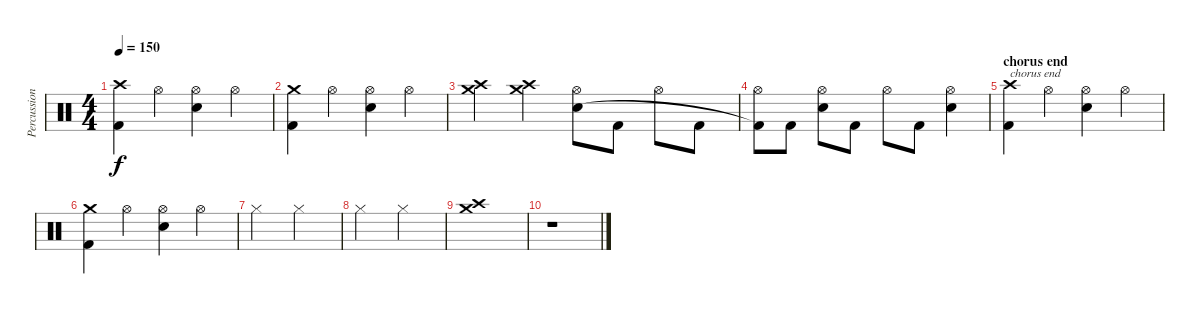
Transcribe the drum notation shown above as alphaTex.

\track ("Percussion" "Percussion") {instrument percussion}
\staff {score}
\articulation defaults
\ts (4 4)
\tempo 150
\clef neutral
\ks c
("Crash high (hit)" "Kick (hit) 2").4{dy f} "Hi-Hat (open)".4 ("Hi-Hat (open)" "Snare (hit) 2").4 "Hi-Hat (open)".4 |
("Crash medium (hit)" "Kick (hit) 2").4 "Hi-Hat (open)".4 ("Hi-Hat (open)" "Snare (hit) 2").4 "Hi-Hat (open)".4 |
("Crash medium (hit)" "Crash high (hit)").4 ("Crash medium (hit)" "Crash high (hit)").4 ("Hi-Hat (open)" "Snare (hit) 2").8 "Kick (hit) 2".8 "Hi-Hat (open)".8 "Kick (hit) 2".8 |
("Hi-Hat (open)" "Kick (hit) 2"{t}).8 "Kick (hit) 2".8 ("Hi-Hat (open)" "Snare (hit) 2").8 "Kick (hit) 2".8 "Hi-Hat (open)".8 "Kick (hit) 2".8 ("Hi-Hat (open)" "Snare (hit) 2").4 |
\section ("" "chorus end")
("Crash high (hit)" "Kick (hit) 2").4{txt "chorus end"} "Hi-Hat (open)".4 ("Hi-Hat (open)" "Snare (hit) 2").4 "Hi-Hat (open)".4 |
("Crash medium (hit)" "Kick (hit) 2").4 "Hi-Hat (open)".4 ("Hi-Hat (open)" "Snare (hit) 2").4 "Hi-Hat (open)".4 |
"Hi-Hat (closed)".2 "Hi-Hat (closed)".2 |
"Hi-Hat (closed)".2 "Hi-Hat (closed)".2 |
("Crash medium (hit)" "Crash high (hit)").1 |
r.1
